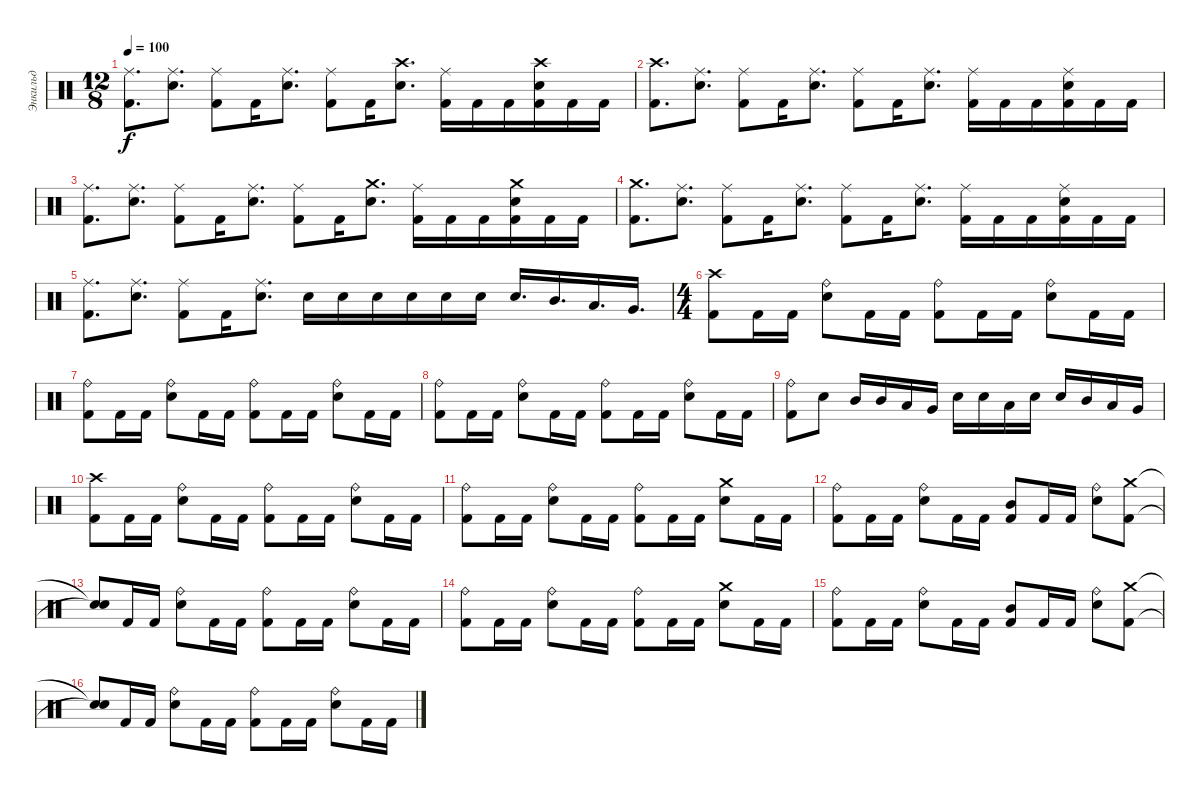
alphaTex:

\track ("Энкильд" "Энкильд") {instrument percussion}
\staff {score}
\articulation defaults
\ts (12 8)
\tempo 100
\clef neutral
\ks c
("Ride (middle)" "Kick (hit) 2").8{d dy f} ("Ride (middle)" "Snare (hit) 2").8{d} ("Ride (middle)" "Kick (hit) 2").8 "Kick (hit) 2".16 ("Ride (middle)" "Snare (hit) 2").8{d} ("Ride (middle)" "Kick (hit) 2").8 "Kick (hit) 2".16 ("Crash high (hit)" "Snare (hit) 2").8{d} ("Ride (middle)" "Kick (hit) 2").16 "Kick (hit) 2".16 "Kick (hit) 2".16 ("Crash high (hit)" "Kick (hit) 2" "Snare (hit) 2").16 "Kick (hit) 2".16 "Kick (hit) 2".16 |
("Crash high (hit)" "Kick (hit) 2").8{d} ("Ride (middle)" "Snare (hit) 2").8{d} ("Ride (middle)" "Kick (hit) 2").8 "Kick (hit) 2".16 ("Ride (middle)" "Snare (hit) 2").8{d} ("Ride (middle)" "Kick (hit) 2").8 "Kick (hit) 2".16 ("Ride (middle)" "Snare (hit) 2").8{d} ("Ride (middle)" "Kick (hit) 2").16 "Kick (hit) 2".16 "Kick (hit) 2".16 ("Ride (middle)" "Kick (hit) 2" "Snare (hit) 2").16 "Kick (hit) 2".16 "Kick (hit) 2".16 |
("Ride (middle)" "Kick (hit) 2").8{d} ("Ride (middle)" "Snare (hit) 2").8{d} ("Ride (middle)" "Kick (hit) 2").8 "Kick (hit) 2".16 ("Ride (middle)" "Snare (hit) 2").8{d} ("Ride (middle)" "Kick (hit) 2").8 "Kick (hit) 2".16 ("Crash medium (hit)" "Snare (hit) 2").8{d} ("Ride (middle)" "Kick (hit) 2").16 "Kick (hit) 2".16 "Kick (hit) 2".16 ("Crash medium (hit)" "Kick (hit) 2" "Snare (hit) 2").16 "Kick (hit) 2".16 "Kick (hit) 2".16 |
("Crash medium (hit)" "Kick (hit) 2").8{d} ("Ride (middle)" "Snare (hit) 2").8{d} ("Ride (middle)" "Kick (hit) 2").8 "Kick (hit) 2".16 ("Ride (middle)" "Snare (hit) 2").8{d} ("Ride (middle)" "Kick (hit) 2").8 "Kick (hit) 2".16 ("Ride (middle)" "Snare (hit) 2").8{d} ("Ride (middle)" "Kick (hit) 2").16 "Kick (hit) 2".16 "Kick (hit) 2".16 ("Ride (middle)" "Kick (hit) 2" "Snare (hit) 2").16 "Kick (hit) 2".16 "Kick (hit) 2".16 |
("Ride (middle)" "Kick (hit) 2").8{d} ("Ride (middle)" "Snare (hit) 2").8{d} ("Ride (middle)" "Kick (hit) 2").8 "Kick (hit) 2".16 ("Ride (middle)" "Snare (hit) 2").8{d} "Snare (hit) 2".16 "Snare (hit) 2".16 "Snare (hit) 2".16 "Snare (hit) 2".16 "Snare (hit) 2".16 "Snare (hit) 2".16 "Snare (hit) 2".16{d} "Mid Tom (hit)".16{d} "Low Tom (hit)".16{d} "Very Low Tom (hit)".16{d} |
\ts (4 4)
("Kick (hit) 2" "Crash high (hit)").8 "Kick (hit) 2".16 "Kick (hit) 2".16 ("Snare (hit) 2" "Ride (bell)").8 "Kick (hit) 2".16 "Kick (hit) 2".16 ("Kick (hit) 2" "Ride (bell)").8 "Kick (hit) 2".16 "Kick (hit) 2".16 ("Snare (hit) 2" "Ride (bell)").8 "Kick (hit) 2".16 "Kick (hit) 2".16 |
("Ride (bell)" "Kick (hit) 2").8 "Kick (hit) 2".16 "Kick (hit) 2".16 ("Snare (hit) 2" "Ride (bell)").8 "Kick (hit) 2".16 "Kick (hit) 2".16 ("Kick (hit) 2" "Ride (bell)").8 "Kick (hit) 2".16 "Kick (hit) 2".16 ("Snare (hit) 2" "Ride (bell)").8 "Kick (hit) 2".16 "Kick (hit) 2".16 |
("Ride (bell)" "Kick (hit) 2").8 "Kick (hit) 2".16 "Kick (hit) 2".16 ("Snare (hit) 2" "Ride (bell)").8 "Kick (hit) 2".16 "Kick (hit) 2".16 ("Kick (hit) 2" "Ride (bell)").8 "Kick (hit) 2".16 "Kick (hit) 2".16 ("Snare (hit) 2" "Ride (bell)").8 "Kick (hit) 2".16 "Kick (hit) 2".16 |
("Ride (bell)" "Kick (hit) 2").8 "Snare (hit) 2".8 "Mid Tom (hit)".16 "Mid Tom (hit)".16 "Low Tom (hit)".16 "Very Low Tom (hit)".16 "Snare (hit) 2".16 "Snare (hit) 2".16 "Low Tom (hit)".16 "Snare (hit) 2".16 "Snare (hit) 2".16 "Mid Tom (hit)".16 "Low Tom (hit)".16 "Very Low Tom (hit)".16 |
("Kick (hit) 2" "Crash high (hit)").8 "Kick (hit) 2".16 "Kick (hit) 2".16 ("Snare (hit) 2" "Ride (bell)").8 "Kick (hit) 2".16 "Kick (hit) 2".16 ("Kick (hit) 2" "Ride (bell)").8 "Kick (hit) 2".16 "Kick (hit) 2".16 ("Snare (hit) 2" "Ride (bell)").8 "Kick (hit) 2".16 "Kick (hit) 2".16 |
("Ride (bell)" "Kick (hit) 2").8 "Kick (hit) 2".16 "Kick (hit) 2".16 ("Snare (hit) 2" "Ride (bell)").8 "Kick (hit) 2".16 "Kick (hit) 2".16 ("Kick (hit) 2" "Ride (bell)").8 "Kick (hit) 2".16 "Kick (hit) 2".16 ("Snare (hit) 2" "Crash medium (hit)").8 "Kick (hit) 2".16 "Kick (hit) 2".16 |
("Ride (bell)" "Kick (hit) 2").8 "Kick (hit) 2".16 "Kick (hit) 2".16 ("Ride (bell)" "Snare (hit) 2").8 "Kick (hit) 2".16 "Kick (hit) 2".16 ("Mid Tom (hit)" "Kick (hit) 2").8 "Kick (hit) 2".16 "Kick (hit) 2".16 ("Ride (bell)" "Snare (hit) 2").8 ("Crash medium (hit)" "Kick (hit) 2").8 |
("Snare (hit)"{t} "Snare (hit)"{t}).8 "Kick (hit) 2".16 "Kick (hit) 2".16 ("Snare (hit) 2" "Ride (bell)").8 "Kick (hit) 2".16 "Kick (hit) 2".16 ("Kick (hit) 2" "Ride (bell)").8 "Kick (hit) 2".16 "Kick (hit) 2".16 ("Snare (hit) 2" "Ride (bell)").8 "Kick (hit) 2".16 "Kick (hit) 2".16 |
("Ride (bell)" "Kick (hit) 2").8 "Kick (hit) 2".16 "Kick (hit) 2".16 ("Snare (hit) 2" "Ride (bell)").8 "Kick (hit) 2".16 "Kick (hit) 2".16 ("Kick (hit) 2" "Ride (bell)").8 "Kick (hit) 2".16 "Kick (hit) 2".16 ("Snare (hit) 2" "Crash medium (hit)").8 "Kick (hit) 2".16 "Kick (hit) 2".16 |
("Ride (bell)" "Kick (hit) 2").8 "Kick (hit) 2".16 "Kick (hit) 2".16 ("Ride (bell)" "Snare (hit) 2").8 "Kick (hit) 2".16 "Kick (hit) 2".16 ("Mid Tom (hit)" "Kick (hit) 2").8 "Kick (hit) 2".16 "Kick (hit) 2".16 ("Ride (bell)" "Snare (hit) 2").8 ("Crash medium (hit)" "Kick (hit) 2").8 |
("Snare (hit)"{t} "Snare (hit)"{t}).8 "Kick (hit) 2".16 "Kick (hit) 2".16 ("Snare (hit) 2" "Ride (bell)").8 "Kick (hit) 2".16 "Kick (hit) 2".16 ("Kick (hit) 2" "Ride (bell)").8 "Kick (hit) 2".16 "Kick (hit) 2".16 ("Snare (hit) 2" "Ride (bell)").8 "Kick (hit) 2".16 "Kick (hit) 2".16
